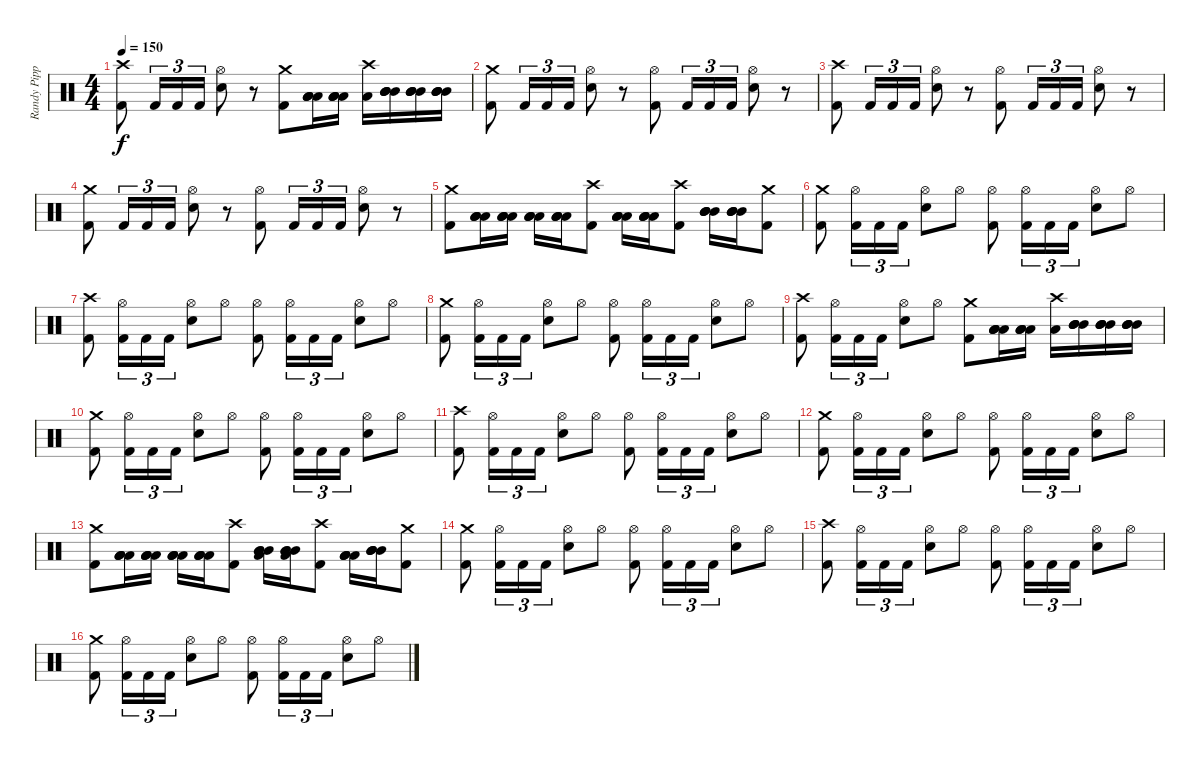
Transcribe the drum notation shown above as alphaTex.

\track ("Randy Pipper" "Randy Pipp") {instrument percussion}
\staff {score}
\articulation defaults
\ts (4 4)
\tempo 150
\clef neutral
\ks c
("Kick (hit) 2" "Crash high (hit)").8{dy f} "Kick (hit) 2".16{tu (3 2)} "Kick (hit) 2".16{tu (3 2)} "Kick (hit) 2".16{tu (3 2)} ("Snare (hit) 2" "Hi-Hat (open)").8 r.8 ("Kick (hit) 2" "Crash medium (hit)").8 ("Low Tom (hit)" "Low Tom (hit)" "Low Tom (hit)" "Low Tom (hit)").16 ("Low Tom (hit)" "Low Tom (hit)" "Low Tom (hit)" "Low Tom (hit)").16 ("Low Tom (hit)" "Crash high (hit)").16 ("Mid Tom (hit)" "Mid Tom (hit)" "Mid Tom (hit)" "Mid Tom (hit)").16 ("Mid Tom (hit)" "Mid Tom (hit)" "Mid Tom (hit)" "Mid Tom (hit)").16 ("Mid Tom (hit)" "Mid Tom (hit)" "Mid Tom (hit)" "Mid Tom (hit)").16 |
("Kick (hit) 2" "Crash medium (hit)").8 "Kick (hit) 2".16{tu (3 2)} "Kick (hit) 2".16{tu (3 2)} "Kick (hit) 2".16{tu (3 2)} ("Snare (hit) 2" "Hi-Hat (open)").8 r.8 ("Kick (hit) 2" "Hi-Hat (open)").8 "Kick (hit) 2".16{tu (3 2)} "Kick (hit) 2".16{tu (3 2)} "Kick (hit) 2".16{tu (3 2)} ("Snare (hit) 2" "Hi-Hat (open)").8 r.8 |
("Kick (hit) 2" "Crash high (hit)").8 "Kick (hit) 2".16{tu (3 2)} "Kick (hit) 2".16{tu (3 2)} "Kick (hit) 2".16{tu (3 2)} ("Snare (hit) 2" "Hi-Hat (open)").8 r.8 ("Kick (hit) 2" "Hi-Hat (open)").8 "Kick (hit) 2".16{tu (3 2)} "Kick (hit) 2".16{tu (3 2)} "Kick (hit) 2".16{tu (3 2)} ("Snare (hit) 2" "Hi-Hat (open)").8 r.8 |
("Kick (hit) 2" "Crash medium (hit)").8 "Kick (hit) 2".16{tu (3 2)} "Kick (hit) 2".16{tu (3 2)} "Kick (hit) 2".16{tu (3 2)} ("Snare (hit) 2" "Hi-Hat (open)").8 r.8 ("Kick (hit) 2" "Hi-Hat (open)").8 "Kick (hit) 2".16{tu (3 2)} "Kick (hit) 2".16{tu (3 2)} "Kick (hit) 2".16{tu (3 2)} ("Snare (hit) 2" "Hi-Hat (open)").8 r.8 |
("Kick (hit) 2" "Crash medium (hit)").8 ("Low Tom (hit)" "Low Tom (hit)" "Low Tom (hit)" "Low Tom (hit)").16 ("Low Tom (hit)" "Low Tom (hit)" "Low Tom (hit)" "Low Tom (hit)").16 ("Low Tom (hit)" "Low Tom (hit)" "Low Tom (hit)" "Low Tom (hit)").16 ("Low Tom (hit)" "Low Tom (hit)" "Low Tom (hit)" "Low Tom (hit)").16 ("Kick (hit) 2" "Crash high (hit)").8 ("Low Tom (hit)" "Low Tom (hit)" "Low Tom (hit)" "Low Tom (hit)").16 ("Low Tom (hit)" "Low Tom (hit)" "Low Tom (hit)" "Low Tom (hit)").16 ("Kick (hit) 2" "Crash high (hit)").8 ("Mid Tom (hit)" "Mid Tom (hit)" "Mid Tom (hit)" "Mid Tom (hit)").16 ("Mid Tom (hit)" "Mid Tom (hit)" "Mid Tom (hit)" "Mid Tom (hit)").16 ("Kick (hit) 2" "Crash medium (hit)").8 |
("Kick (hit) 2" "Crash medium (hit)").8 ("Kick (hit) 2" "Hi-Hat (open)").16{tu (3 2)} "Kick (hit) 2".16{tu (3 2)} "Kick (hit) 2".16{tu (3 2)} ("Snare (hit) 2" "Hi-Hat (open)").8 "Hi-Hat (open)".8 ("Kick (hit) 2" "Hi-Hat (open)").8 ("Kick (hit) 2" "Hi-Hat (open)").16{tu (3 2)} "Kick (hit) 2".16{tu (3 2)} "Kick (hit) 2".16{tu (3 2)} ("Snare (hit) 2" "Hi-Hat (open)").8 "Hi-Hat (open)".8 |
("Kick (hit) 2" "Crash high (hit)").8 ("Kick (hit) 2" "Hi-Hat (open)").16{tu (3 2)} "Kick (hit) 2".16{tu (3 2)} "Kick (hit) 2".16{tu (3 2)} ("Snare (hit) 2" "Hi-Hat (open)").8 "Hi-Hat (open)".8 ("Kick (hit) 2" "Hi-Hat (open)").8 ("Kick (hit) 2" "Hi-Hat (open)").16{tu (3 2)} "Kick (hit) 2".16{tu (3 2)} "Kick (hit) 2".16{tu (3 2)} ("Snare (hit) 2" "Hi-Hat (open)").8 "Hi-Hat (open)".8 |
("Kick (hit) 2" "Crash medium (hit)").8 ("Kick (hit) 2" "Hi-Hat (open)").16{tu (3 2)} "Kick (hit) 2".16{tu (3 2)} "Kick (hit) 2".16{tu (3 2)} ("Snare (hit) 2" "Hi-Hat (open)").8 "Hi-Hat (open)".8 ("Kick (hit) 2" "Hi-Hat (open)").8 ("Kick (hit) 2" "Hi-Hat (open)").16{tu (3 2)} "Kick (hit) 2".16{tu (3 2)} "Kick (hit) 2".16{tu (3 2)} ("Snare (hit) 2" "Hi-Hat (open)").8 "Hi-Hat (open)".8 |
("Kick (hit) 2" "Crash high (hit)").8 ("Kick (hit) 2" "Hi-Hat (open)").16{tu (3 2)} "Kick (hit) 2".16{tu (3 2)} "Kick (hit) 2".16{tu (3 2)} ("Snare (hit) 2" "Hi-Hat (open)").8 "Hi-Hat (open)".8 ("Kick (hit) 2" "Crash medium (hit)").8 ("Low Tom (hit)" "Low Tom (hit)" "Low Tom (hit)" "Low Tom (hit)").16 ("Low Tom (hit)" "Low Tom (hit)" "Low Tom (hit)" "Low Tom (hit)").16 ("Low Tom (hit)" "Crash high (hit)").16 ("Mid Tom (hit)" "Mid Tom (hit)" "Mid Tom (hit)" "Mid Tom (hit)").16 ("Mid Tom (hit)" "Mid Tom (hit)" "Mid Tom (hit)" "Mid Tom (hit)").16 ("Mid Tom (hit)" "Mid Tom (hit)" "Mid Tom (hit)" "Mid Tom (hit)").16 |
("Kick (hit) 2" "Crash medium (hit)").8 ("Kick (hit) 2" "Hi-Hat (open)").16{tu (3 2)} "Kick (hit) 2".16{tu (3 2)} "Kick (hit) 2".16{tu (3 2)} ("Snare (hit) 2" "Hi-Hat (open)").8 "Hi-Hat (open)".8 ("Kick (hit) 2" "Hi-Hat (open)").8 ("Kick (hit) 2" "Hi-Hat (open)").16{tu (3 2)} "Kick (hit) 2".16{tu (3 2)} "Kick (hit) 2".16{tu (3 2)} ("Snare (hit) 2" "Hi-Hat (open)").8 "Hi-Hat (open)".8 |
("Kick (hit) 2" "Crash high (hit)").8 ("Kick (hit) 2" "Hi-Hat (open)").16{tu (3 2)} "Kick (hit) 2".16{tu (3 2)} "Kick (hit) 2".16{tu (3 2)} ("Snare (hit) 2" "Hi-Hat (open)").8 "Hi-Hat (open)".8 ("Kick (hit) 2" "Hi-Hat (open)").8 ("Kick (hit) 2" "Hi-Hat (open)").16{tu (3 2)} "Kick (hit) 2".16{tu (3 2)} "Kick (hit) 2".16{tu (3 2)} ("Snare (hit) 2" "Hi-Hat (open)").8 "Hi-Hat (open)".8 |
("Kick (hit) 2" "Crash medium (hit)").8 ("Kick (hit) 2" "Hi-Hat (open)").16{tu (3 2)} "Kick (hit) 2".16{tu (3 2)} "Kick (hit) 2".16{tu (3 2)} ("Snare (hit) 2" "Hi-Hat (open)").8 "Hi-Hat (open)".8 ("Kick (hit) 2" "Hi-Hat (open)").8 ("Kick (hit) 2" "Hi-Hat (open)").16{tu (3 2)} "Kick (hit) 2".16{tu (3 2)} "Kick (hit) 2".16{tu (3 2)} ("Snare (hit) 2" "Hi-Hat (open)").8 "Hi-Hat (open)".8 |
("Kick (hit) 2" "Crash medium (hit)").8 ("Low Tom (hit)" "Low Tom (hit)" "Low Tom (hit)" "Low Tom (hit)").16 ("Low Tom (hit)" "Low Tom (hit)" "Low Tom (hit)" "Low Tom (hit)").16 ("Low Tom (hit)" "Low Tom (hit)" "Low Tom (hit)" "Low Tom (hit)").16 ("Low Tom (hit)" "Low Tom (hit)" "Low Tom (hit)" "Low Tom (hit)").16 ("Kick (hit) 2" "Crash high (hit)").8 ("Low Tom (hit)" "Mid Tom (hit)" "Mid Tom (hit)" "Mid Tom (hit)").16 ("Low Tom (hit)" "Mid Tom (hit)" "Mid Tom (hit)" "Mid Tom (hit)").16 ("Kick (hit) 2" "Crash high (hit)").8 ("Low Tom (hit)" "Low Tom (hit)" "Low Tom (hit)" "Low Tom (hit)").16 ("Mid Tom (hit)" "Mid Tom (hit)" "Mid Tom (hit)" "Mid Tom (hit)").16 ("Kick (hit) 2" "Crash medium (hit)").8 |
("Kick (hit) 2" "Crash medium (hit)").8 ("Kick (hit) 2" "Hi-Hat (open)").16{tu (3 2)} "Kick (hit) 2".16{tu (3 2)} "Kick (hit) 2".16{tu (3 2)} ("Snare (hit) 2" "Hi-Hat (open)").8 "Hi-Hat (open)".8 ("Kick (hit) 2" "Hi-Hat (open)").8 ("Kick (hit) 2" "Hi-Hat (open)").16{tu (3 2)} "Kick (hit) 2".16{tu (3 2)} "Kick (hit) 2".16{tu (3 2)} ("Snare (hit) 2" "Hi-Hat (open)").8 "Hi-Hat (open)".8 |
("Kick (hit) 2" "Crash high (hit)").8 ("Kick (hit) 2" "Hi-Hat (open)").16{tu (3 2)} "Kick (hit) 2".16{tu (3 2)} "Kick (hit) 2".16{tu (3 2)} ("Snare (hit) 2" "Hi-Hat (open)").8 "Hi-Hat (open)".8 ("Kick (hit) 2" "Hi-Hat (open)").8 ("Kick (hit) 2" "Hi-Hat (open)").16{tu (3 2)} "Kick (hit) 2".16{tu (3 2)} "Kick (hit) 2".16{tu (3 2)} ("Snare (hit) 2" "Hi-Hat (open)").8 "Hi-Hat (open)".8 |
("Kick (hit) 2" "Crash medium (hit)").8 ("Kick (hit) 2" "Hi-Hat (open)").16{tu (3 2)} "Kick (hit) 2".16{tu (3 2)} "Kick (hit) 2".16{tu (3 2)} ("Snare (hit) 2" "Hi-Hat (open)").8 "Hi-Hat (open)".8 ("Kick (hit) 2" "Hi-Hat (open)").8 ("Kick (hit) 2" "Hi-Hat (open)").16{tu (3 2)} "Kick (hit) 2".16{tu (3 2)} "Kick (hit) 2".16{tu (3 2)} ("Snare (hit) 2" "Hi-Hat (open)").8 "Hi-Hat (open)".8
